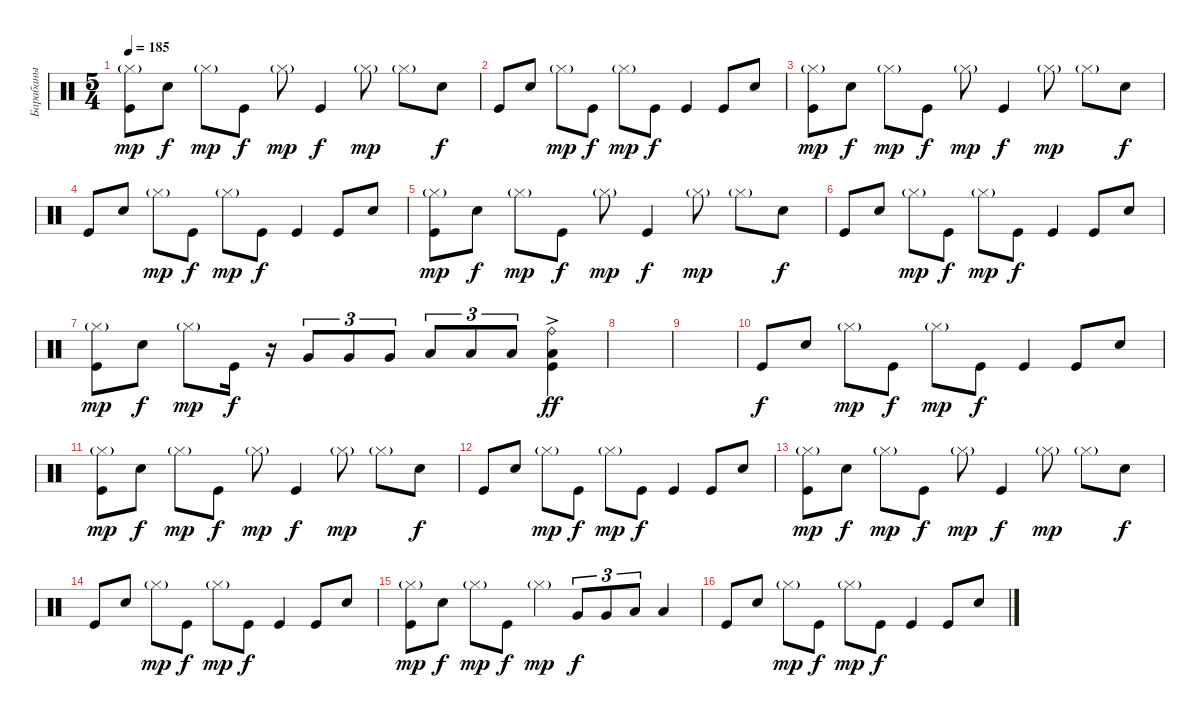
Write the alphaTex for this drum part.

\track ("Барабаны" "Барабаны") {instrument percussion}
\staff {score}
\articulation defaults
\ts (5 4)
\tempo 185
\clef neutral
\ks c
("Hi-Hat (closed)"{g} "Kick (hit)").8{dy mp} "Electric Snare (hit)".8{dy f} "Hi-Hat (closed)"{g}.8{dy mp} "Kick (hit)".8{dy f} "Hi-Hat (closed)"{g}.8{dy mp} "Kick (hit)".4{dy f} "Hi-Hat (closed)"{g}.8{dy mp} "Hi-Hat (closed)"{g}.8 "Electric Snare (hit)".8{dy f} |
"Kick (hit)".8 "Electric Snare (hit)".8 "Hi-Hat (closed)"{g}.8{dy mp} "Kick (hit)".8{dy f} "Hi-Hat (closed)"{g}.8{dy mp} "Kick (hit)".8{dy f} "Kick (hit)".4 "Kick (hit)".8 "Electric Snare (hit)".8 |
("Hi-Hat (closed)"{g} "Kick (hit)").8{dy mp} "Electric Snare (hit)".8{dy f} "Hi-Hat (closed)"{g}.8{dy mp} "Kick (hit)".8{dy f} "Hi-Hat (closed)"{g}.8{dy mp} "Kick (hit)".4{dy f} "Hi-Hat (closed)"{g}.8{dy mp} "Hi-Hat (closed)"{g}.8 "Electric Snare (hit)".8{dy f} |
"Kick (hit)".8 "Electric Snare (hit)".8 "Hi-Hat (closed)"{g}.8{dy mp} "Kick (hit)".8{dy f} "Hi-Hat (closed)"{g}.8{dy mp} "Kick (hit)".8{dy f} "Kick (hit)".4 "Kick (hit)".8 "Electric Snare (hit)".8 |
("Hi-Hat (closed)"{g} "Kick (hit)").8{dy mp} "Electric Snare (hit)".8{dy f} "Hi-Hat (closed)"{g}.8{dy mp} "Kick (hit)".8{dy f} "Hi-Hat (closed)"{g}.8{dy mp} "Kick (hit)".4{dy f} "Hi-Hat (closed)"{g}.8{dy mp} "Hi-Hat (closed)"{g}.8 "Electric Snare (hit)".8{dy f} |
"Kick (hit)".8 "Electric Snare (hit)".8 "Hi-Hat (closed)"{g}.8{dy mp} "Kick (hit)".8{dy f} "Hi-Hat (closed)"{g}.8{dy mp} "Kick (hit)".8{dy f} "Kick (hit)".4 "Kick (hit)".8 "Electric Snare (hit)".8 |
("Hi-Hat (closed)"{g} "Kick (hit)").8{dy mp} "Electric Snare (hit)".8{dy f} "Hi-Hat (closed)"{g}.8{dy mp} "Kick (hit)".16{dy f} r.16 "Very Low Tom (hit)".8{tu (3 2)} "Very Low Tom (hit)".8{tu (3 2)} "Very Low Tom (hit)".8{tu (3 2)} "Low Floor Tom (hit)".8{tu (3 2)} "Low Floor Tom (hit)".8{tu (3 2)} "Low Floor Tom (hit)".8{tu (3 2)} ("Ride (bell)"{ac} "Low Floor Tom (hit)" "Kick (hit)"{ac}).4{dy ff} |
|
|
"Kick (hit)".8{dy f} "Electric Snare (hit)".8 "Hi-Hat (closed)"{g}.8{dy mp} "Kick (hit)".8{dy f} "Hi-Hat (closed)"{g}.8{dy mp} "Kick (hit)".8{dy f} "Kick (hit)".4 "Kick (hit)".8 "Electric Snare (hit)".8 |
("Hi-Hat (closed)"{g} "Kick (hit)").8{dy mp} "Electric Snare (hit)".8{dy f} "Hi-Hat (closed)"{g}.8{dy mp} "Kick (hit)".8{dy f} "Hi-Hat (closed)"{g}.8{dy mp} "Kick (hit)".4{dy f} "Hi-Hat (closed)"{g}.8{dy mp} "Hi-Hat (closed)"{g}.8 "Electric Snare (hit)".8{dy f} |
"Kick (hit)".8 "Electric Snare (hit)".8 "Hi-Hat (closed)"{g}.8{dy mp} "Kick (hit)".8{dy f} "Hi-Hat (closed)"{g}.8{dy mp} "Kick (hit)".8{dy f} "Kick (hit)".4 "Kick (hit)".8 "Electric Snare (hit)".8 |
("Hi-Hat (closed)"{g} "Kick (hit)").8{dy mp} "Electric Snare (hit)".8{dy f} "Hi-Hat (closed)"{g}.8{dy mp} "Kick (hit)".8{dy f} "Hi-Hat (closed)"{g}.8{dy mp} "Kick (hit)".4{dy f} "Hi-Hat (closed)"{g}.8{dy mp} "Hi-Hat (closed)"{g}.8 "Electric Snare (hit)".8{dy f} |
"Kick (hit)".8 "Electric Snare (hit)".8 "Hi-Hat (closed)"{g}.8{dy mp} "Kick (hit)".8{dy f} "Hi-Hat (closed)"{g}.8{dy mp} "Kick (hit)".8{dy f} "Kick (hit)".4 "Kick (hit)".8 "Electric Snare (hit)".8 |
("Hi-Hat (closed)"{g} "Kick (hit)").8{dy mp} "Electric Snare (hit)".8{dy f} "Hi-Hat (closed)"{g}.8{dy mp} "Kick (hit)".8{dy f} "Hi-Hat (closed)"{g}.4{dy mp} "Very Low Tom (hit)".8{tu (3 2) dy f} "Very Low Tom (hit)".8{tu (3 2)} "Low Floor Tom (hit)".8{tu (3 2)} "Low Floor Tom (hit)".4 |
"Kick (hit)".8 "Electric Snare (hit)".8 "Hi-Hat (closed)"{g}.8{dy mp} "Kick (hit)".8{dy f} "Hi-Hat (closed)"{g}.8{dy mp} "Kick (hit)".8{dy f} "Kick (hit)".4 "Kick (hit)".8 "Electric Snare (hit)".8
